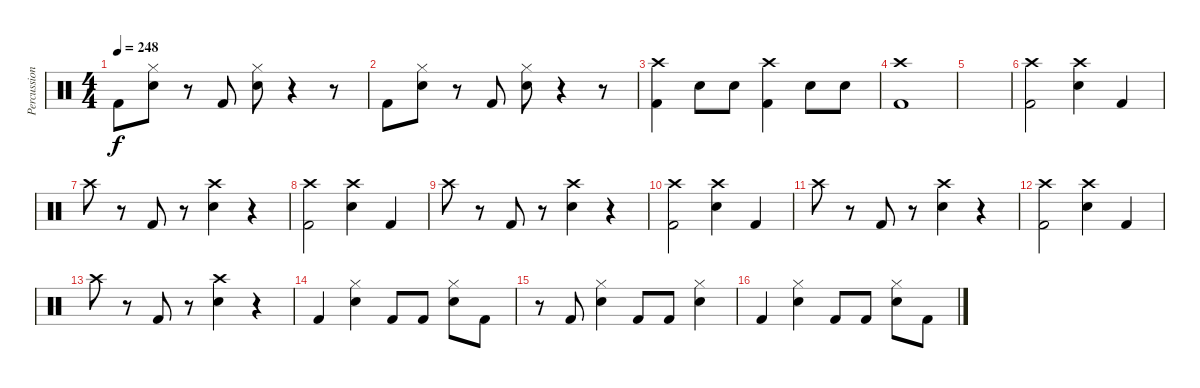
\track ("Percussion" "Percussion") {instrument percussion}
\staff {score}
\articulation defaults
\ts (4 4)
\tempo 248
\clef neutral
\ks c "Kick (hit) 2".8{dy f}
("Hi-Hat (closed)" "Snare (hit) 2").8 r.8 "Kick (hit) 2".8 ("Hi-Hat (closed)" "Snare (hit) 2").8 r.4 r.8 |
"Kick (hit) 2".8 ("Hi-Hat (closed)" "Snare (hit) 2").8 r.8 "Kick (hit) 2".8 ("Hi-Hat (closed)" "Snare (hit) 2").8 r.4 r.8 |
("Crash high (hit)" "Kick (hit) 2").4 "Snare (hit) 2".8 "Snare (hit) 2".8 ("Crash high (hit)" "Kick (hit) 2").4 "Snare (hit) 2".8 "Snare (hit) 2".8 |
("Crash high (hit)" "Kick (hit) 2").1 |
|
("Crash high (hit)" "Kick (hit) 2").2 ("Crash high (hit)" "Snare (hit) 2").4 "Kick (hit) 2".4 |
"Crash high (hit)".8 r.8 "Kick (hit) 2".8 r.8 ("Crash high (hit)" "Snare (hit) 2").4 r.4 |
("Crash high (hit)" "Kick (hit) 2").2 ("Crash high (hit)" "Snare (hit) 2").4 "Kick (hit) 2".4 |
"Crash high (hit)".8 r.8 "Kick (hit) 2".8 r.8 ("Crash high (hit)" "Snare (hit) 2").4 r.4 |
("Crash high (hit)" "Kick (hit) 2").2 ("Crash high (hit)" "Snare (hit) 2").4 "Kick (hit) 2".4 |
"Crash high (hit)".8 r.8 "Kick (hit) 2".8 r.8 ("Crash high (hit)" "Snare (hit) 2").4 r.4 |
("Crash high (hit)" "Kick (hit) 2").2 ("Crash high (hit)" "Snare (hit) 2").4 "Kick (hit) 2".4 |
"Crash high (hit)".8 r.8 "Kick (hit) 2".8 r.8 ("Crash high (hit)" "Snare (hit) 2").4 r.4 |
"Kick (hit) 2".4 ("Hi-Hat (closed)" "Snare (hit) 2").4 "Kick (hit) 2".8 "Kick (hit) 2".8 ("Hi-Hat (closed)" "Snare (hit) 2").8 "Kick (hit) 2".8 |
r.8 "Kick (hit) 2".8 ("Hi-Hat (closed)" "Snare (hit) 2").4 "Kick (hit) 2".8 "Kick (hit) 2".8 ("Hi-Hat (closed)" "Snare (hit) 2").4 |
"Kick (hit) 2".4 ("Hi-Hat (closed)" "Snare (hit) 2").4 "Kick (hit) 2".8 "Kick (hit) 2".8 ("Hi-Hat (closed)" "Snare (hit) 2").8 "Kick (hit) 2".8
